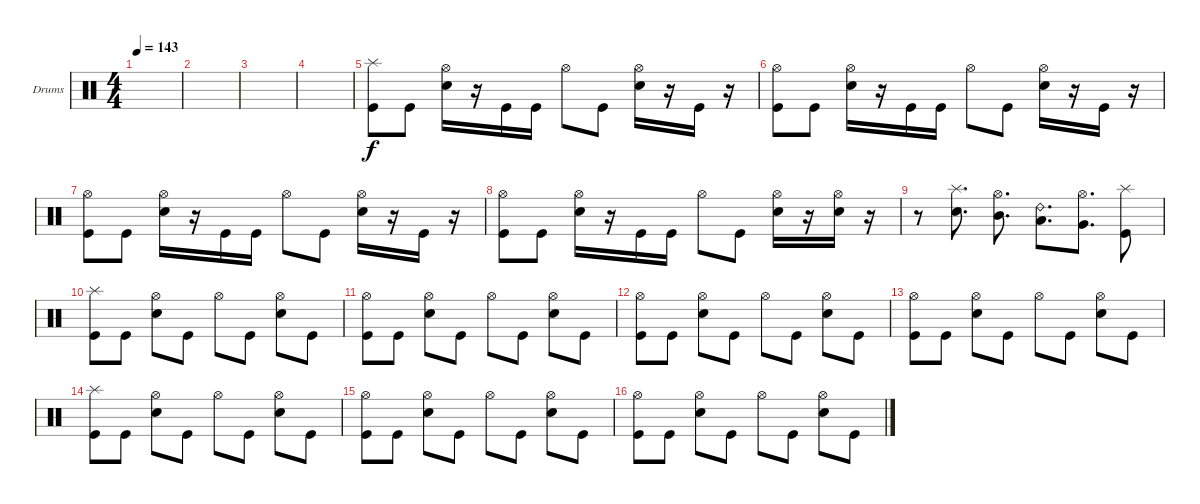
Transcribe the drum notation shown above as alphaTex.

\defaultSystemsLayout 4
\bracketExtendMode groupsimilarinstruments
\firstSystemTrackNameOrientation horizontal
\otherSystemsTrackNameOrientation horizontal
\track ("Drumkit" "Drums") {instrument percussion}
\staff {score}
\articulation defaults
\ts (4 4)
\tempo 143
\clef neutral
\scale
0.474178
\ks c
|
\scale
0.262911 |
\scale
0.262911 |
\scale
0.333333 |
\scale
0.333333 ("Splash (hit)" "Kick (hit)").8 "Kick (hit)".8 ("Snare (hit) 2" "Hi-Hat (open)").16 r.16 "Kick (hit)".16 "Kick (hit)".16 "Hi-Hat (open)".8 "Kick (hit)".8 ("Snare (hit) 2" "Hi-Hat (open)").16 r.16 "Kick (hit)".16 r.16 |
\scale
0.333333 ("Kick (hit)" "Hi-Hat (open)").8 "Kick (hit)".8 ("Snare (hit) 2" "Hi-Hat (open)").16 r.16 "Kick (hit)".16 "Kick (hit)".16 "Hi-Hat (open)".8 "Kick (hit)".8 ("Snare (hit) 2" "Hi-Hat (open)").16 r.16 "Kick (hit)".16 r.16 |
("Kick (hit)" "Hi-Hat (open)").8 "Kick (hit)".8 ("Snare (hit) 2" "Hi-Hat (open)").16 r.16 "Kick (hit)".16 "Kick (hit)".16 "Hi-Hat (open)".8 "Kick (hit)".8 ("Snare (hit) 2" "Hi-Hat (open)").16 r.16 "Kick (hit)".16 r.16 |
("Kick (hit)" "Hi-Hat (open)").8 "Kick (hit)".8 ("Snare (hit) 2" "Hi-Hat (open)").16 r.16 "Kick (hit)".16 "Kick (hit)".16 "Hi-Hat (open)".8 "Kick (hit)".8 ("Snare (hit) 2" "Hi-Hat (open)").16 r.16 ("Snare (hit) 2" "Hi-Hat (open)").16 r.16 |
r.8 ("Snare (hit) 2" "Splash (hit)").8{d} ("Mid Tom (hit)" "Hi-Hat (open)").8{d} ("Low Tom (hit)" "Ride (bell) 2").8{d} ("Very Low Tom (hit)" "Hi-Hat (open)").8{d} ("Kick (hit)" "Splash (hit)").8 |
("Splash (hit)" "Kick (hit)").8 "Kick (hit)".8 ("Snare (hit) 2" "Hi-Hat (open)").8 "Kick (hit)".8 "Hi-Hat (open)".8 "Kick (hit)".8 ("Snare (hit) 2" "Hi-Hat (open)").8 "Kick (hit)".8 |
("Kick (hit)" "Hi-Hat (open)").8 "Kick (hit)".8 ("Snare (hit) 2" "Hi-Hat (open)").8 "Kick (hit)".8 "Hi-Hat (open)".8 "Kick (hit)".8 ("Snare (hit) 2" "Hi-Hat (open)").8 "Kick (hit)".8 |
("Kick (hit)" "Hi-Hat (open)").8 "Kick (hit)".8 ("Snare (hit) 2" "Hi-Hat (open)").8 "Kick (hit)".8 "Hi-Hat (open)".8 "Kick (hit)".8 ("Snare (hit) 2" "Hi-Hat (open)").8 "Kick (hit)".8 |
("Kick (hit)" "Hi-Hat (open)").8 "Kick (hit)".8 ("Snare (hit) 2" "Hi-Hat (open)").8 "Kick (hit)".8 "Hi-Hat (open)".8 "Kick (hit)".8 ("Snare (hit) 2" "Hi-Hat (open)").8 "Kick (hit)".8 |
("Splash (hit)" "Kick (hit)").8 "Kick (hit)".8 ("Snare (hit) 2" "Hi-Hat (open)").8 "Kick (hit)".8 "Hi-Hat (open)".8 "Kick (hit)".8 ("Snare (hit) 2" "Hi-Hat (open)").8 "Kick (hit)".8 |
("Kick (hit)" "Hi-Hat (open)").8 "Kick (hit)".8 ("Snare (hit) 2" "Hi-Hat (open)").8 "Kick (hit)".8 "Hi-Hat (open)".8 "Kick (hit)".8 ("Snare (hit) 2" "Hi-Hat (open)").8 "Kick (hit)".8 |
("Kick (hit)" "Hi-Hat (open)").8 "Kick (hit)".8 ("Snare (hit) 2" "Hi-Hat (open)").8 "Kick (hit)".8 "Hi-Hat (open)".8 "Kick (hit)".8 ("Snare (hit) 2" "Hi-Hat (open)").8 "Kick (hit)".8
